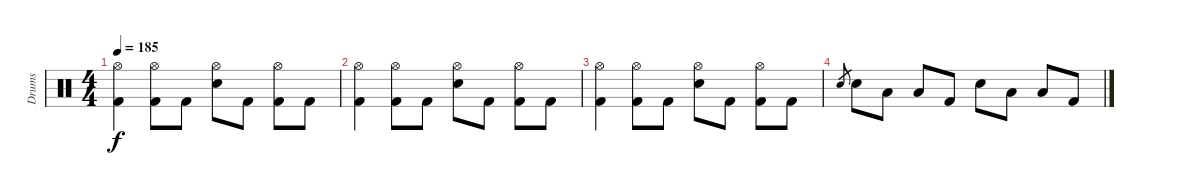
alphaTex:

\track ("Drums" "Drums") {instrument percussion}
\staff {score}
\articulation defaults
\ts (4 4)
\tempo 185
\clef neutral
\ks c
("Hi-Hat (open)" "Kick (hit) 2").4{dy f} ("Hi-Hat (open)" "Kick (hit) 2").8 "Kick (hit) 2".8 ("Hi-Hat (open)" "Snare (hit) 2").8 "Kick (hit) 2".8 ("Hi-Hat (open)" "Kick (hit) 2").8 "Kick (hit) 2".8 |
("Hi-Hat (open)" "Kick (hit) 2").4 ("Hi-Hat (open)" "Kick (hit) 2").8 "Kick (hit) 2".8 ("Hi-Hat (open)" "Snare (hit) 2").8 "Kick (hit) 2".8 ("Hi-Hat (open)" "Kick (hit) 2").8 "Kick (hit) 2".8 |
("Hi-Hat (open)" "Kick (hit) 2").4 ("Hi-Hat (open)" "Kick (hit) 2").8 "Kick (hit) 2".8 ("Hi-Hat (open)" "Snare (hit) 2").8 "Kick (hit) 2".8 ("Hi-Hat (open)" "Kick (hit) 2").8 "Kick (hit) 2".8 |
"Snare (hit) 2".8{gr} "Snare (hit) 2".8 "Low Tom (hit)".8 "Low Floor Tom (hit)".8 "Kick (hit) 2".8 "Snare (hit) 2".8 "Low Tom (hit)".8 "Low Floor Tom (hit)".8 "Kick (hit) 2".8
